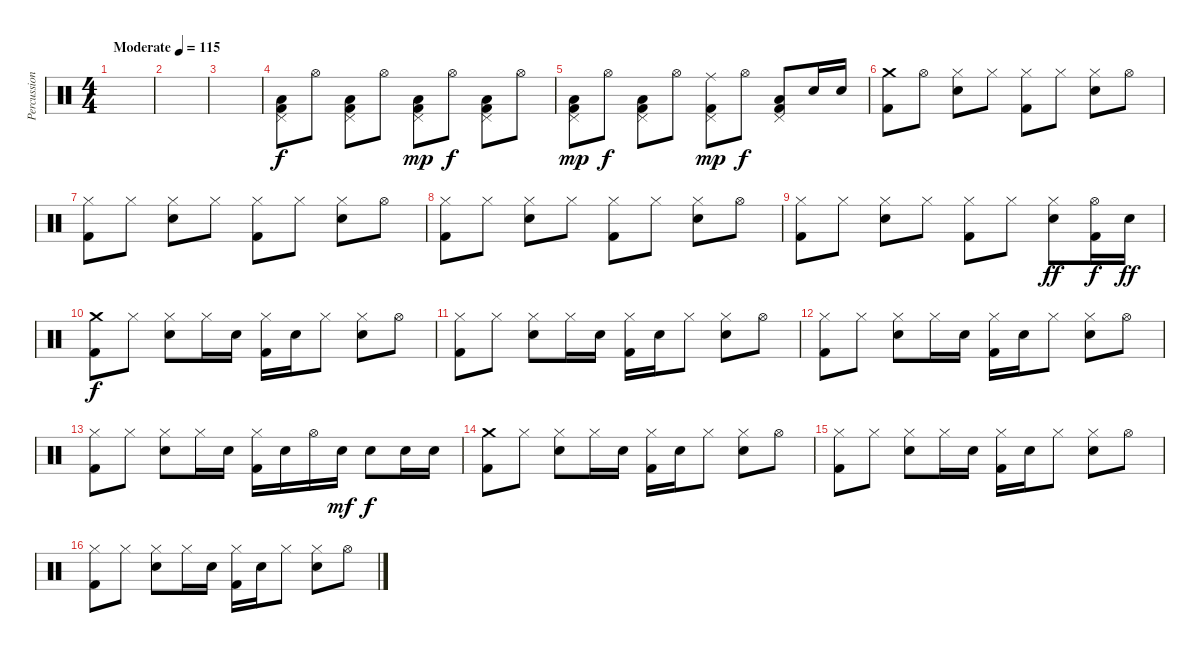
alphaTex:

\track ("Percussion" "Percussion") {instrument percussion}
\staff {score}
\articulation defaults
\ts (4 4)
\tempo (115 "Moderate")
\clef neutral
\ks c
|
|
|
("Pedal Hi-Hat (hit)" "Low Floor Tom (hit)" "Kick (hit) 2").8 "Hi-Hat (open)".8{dy f} ("Pedal Hi-Hat (hit)" "Low Floor Tom (hit)" "Kick (hit) 2").8 "Hi-Hat (open)".8 ("Pedal Hi-Hat (hit)" "Low Floor Tom (hit)" "Kick (hit) 2").8{dy mp} "Hi-Hat (open)".8{dy f} ("Pedal Hi-Hat (hit)" "Low Floor Tom (hit)" "Kick (hit) 2").8 "Hi-Hat (open)".8 |
("Pedal Hi-Hat (hit)" "Low Floor Tom (hit)" "Kick (hit) 2").8{dy mp} "Hi-Hat (open)".8{dy f} ("Pedal Hi-Hat (hit)" "Low Floor Tom (hit)" "Kick (hit) 2").8 "Hi-Hat (open)".8 ("Pedal Hi-Hat (hit)" "Ride (middle)" "Kick (hit) 2").8{dy mp} "Hi-Hat (open)".8{dy f} ("Pedal Hi-Hat (hit)" "Low Floor Tom (hit)" "Kick (hit) 2").8 "Electric Snare (hit)".16 "Electric Snare (hit)".16 |
("Crash medium (hit)" "Kick (hit) 2").8 "Hi-Hat (open)".8 ("Hi-Hat (closed)" "Electric Snare (hit)").8 "Hi-Hat (closed)".8 ("Hi-Hat (closed)" "Kick (hit) 2").8 "Hi-Hat (closed)".8 ("Hi-Hat (closed)" "Electric Snare (hit)").8 "Hi-Hat (open)".8 |
("Hi-Hat (closed)" "Kick (hit) 2").8 "Hi-Hat (closed)".8 ("Hi-Hat (closed)" "Electric Snare (hit)").8 "Hi-Hat (closed)".8 ("Hi-Hat (closed)" "Kick (hit) 2").8 "Hi-Hat (closed)".8 ("Hi-Hat (closed)" "Electric Snare (hit)").8 "Hi-Hat (open)".8 |
("Hi-Hat (closed)" "Kick (hit) 2").8 "Hi-Hat (closed)".8 ("Hi-Hat (closed)" "Electric Snare (hit)").8 "Hi-Hat (closed)".8 ("Hi-Hat (closed)" "Kick (hit) 2").8 "Hi-Hat (closed)".8 ("Hi-Hat (closed)" "Electric Snare (hit)").8 "Hi-Hat (open)".8 |
("Hi-Hat (closed)" "Kick (hit) 2").8 "Hi-Hat (closed)".8 ("Hi-Hat (closed)" "Electric Snare (hit)").8 "Hi-Hat (closed)".8 ("Hi-Hat (closed)" "Kick (hit) 2").8 "Hi-Hat (closed)".8 ("Hi-Hat (closed)" "Electric Snare (hit)").8{dy ff} ("Hi-Hat (open)" "Kick (hit) 2").16{dy f} "Electric Snare (hit)".16{dy ff} |
("Crash medium (hit)" "Kick (hit) 2").8{dy f} "Hi-Hat (closed)".8 ("Hi-Hat (closed)" "Electric Snare (hit)").8 "Hi-Hat (closed)".16 "Electric Snare (hit)".16 ("Hi-Hat (closed)" "Kick (hit) 2").16 "Electric Snare (hit)".16 "Hi-Hat (closed)".8 ("Hi-Hat (closed)" "Electric Snare (hit)").8 "Hi-Hat (open)".8 |
("Hi-Hat (closed)" "Kick (hit) 2").8 "Hi-Hat (closed)".8 ("Hi-Hat (closed)" "Electric Snare (hit)").8 "Hi-Hat (closed)".16 "Electric Snare (hit)".16 ("Hi-Hat (closed)" "Kick (hit) 2").16 "Electric Snare (hit)".16 "Hi-Hat (closed)".8 ("Hi-Hat (closed)" "Electric Snare (hit)").8 "Hi-Hat (open)".8 |
("Hi-Hat (closed)" "Kick (hit) 2").8 "Hi-Hat (closed)".8 ("Hi-Hat (closed)" "Electric Snare (hit)").8 "Hi-Hat (closed)".16 "Electric Snare (hit)".16 ("Hi-Hat (closed)" "Kick (hit) 2").16 "Electric Snare (hit)".16 "Hi-Hat (closed)".8 ("Hi-Hat (closed)" "Electric Snare (hit)").8 "Hi-Hat (open)".8 |
("Hi-Hat (closed)" "Kick (hit) 2").8 "Hi-Hat (closed)".8 ("Hi-Hat (closed)" "Electric Snare (hit)").8 "Hi-Hat (closed)".16 "Electric Snare (hit)".16 ("Hi-Hat (closed)" "Kick (hit) 2").16 "Electric Snare (hit)".16 "Hi-Hat (open)".16 "Electric Snare (hit)".16{dy mf} "Electric Snare (hit)".8{dy f} "Electric Snare (hit)".16 "Electric Snare (hit)".16 |
("Crash medium (hit)" "Kick (hit) 2").8 "Hi-Hat (closed)".8 ("Hi-Hat (closed)" "Electric Snare (hit)").8 "Hi-Hat (closed)".16 "Electric Snare (hit)".16 ("Hi-Hat (closed)" "Kick (hit) 2").16 "Electric Snare (hit)".16 "Hi-Hat (closed)".8 ("Hi-Hat (closed)" "Electric Snare (hit)").8 "Hi-Hat (open)".8 |
("Hi-Hat (closed)" "Kick (hit) 2").8 "Hi-Hat (closed)".8 ("Hi-Hat (closed)" "Electric Snare (hit)").8 "Hi-Hat (closed)".16 "Electric Snare (hit)".16 ("Hi-Hat (closed)" "Kick (hit) 2").16 "Electric Snare (hit)".16 "Hi-Hat (closed)".8 ("Hi-Hat (closed)" "Electric Snare (hit)").8 "Hi-Hat (open)".8 |
("Hi-Hat (closed)" "Kick (hit) 2").8 "Hi-Hat (closed)".8 ("Hi-Hat (closed)" "Electric Snare (hit)").8 "Hi-Hat (closed)".16 "Electric Snare (hit)".16 ("Hi-Hat (closed)" "Kick (hit) 2").16 "Electric Snare (hit)".16 "Hi-Hat (closed)".8 ("Hi-Hat (closed)" "Electric Snare (hit)").8 "Hi-Hat (open)".8
